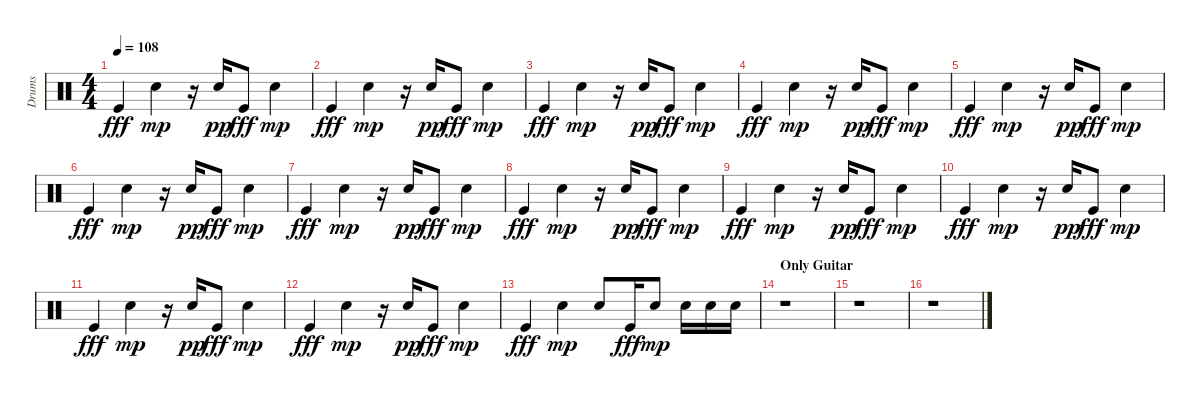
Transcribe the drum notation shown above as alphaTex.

\track ("Drums" "Drums") {instrument percussion}
\staff {score}
\articulation defaults
\ts (4 4)
\tempo 108
\clef neutral
\ks c "Kick (hit)".4{dy fff} "Snare (hit) 2".4{dy mp}
r.16 "Snare (hit) 2".16{dy pp} "Kick (hit)".8{dy fff} "Snare (hit) 2".4{dy mp} |
"Kick (hit)".4{dy fff} "Snare (hit) 2".4{dy mp} r.16 "Snare (hit) 2".16{dy pp} "Kick (hit)".8{dy fff} "Snare (hit) 2".4{dy mp} |
"Kick (hit)".4{dy fff} "Snare (hit) 2".4{dy mp} r.16 "Snare (hit) 2".16{dy pp} "Kick (hit)".8{dy fff} "Snare (hit) 2".4{dy mp} |
"Kick (hit)".4{dy fff} "Snare (hit) 2".4{dy mp} r.16 "Snare (hit) 2".16{dy pp} "Kick (hit)".8{dy fff} "Snare (hit) 2".4{dy mp} |
"Kick (hit)".4{dy fff} "Snare (hit) 2".4{dy mp} r.16 "Snare (hit) 2".16{dy pp} "Kick (hit)".8{dy fff} "Snare (hit) 2".4{dy mp} |
"Kick (hit)".4{dy fff} "Snare (hit) 2".4{dy mp} r.16 "Snare (hit) 2".16{dy pp} "Kick (hit)".8{dy fff} "Snare (hit) 2".4{dy mp} |
"Kick (hit)".4{dy fff} "Snare (hit) 2".4{dy mp} r.16 "Snare (hit) 2".16{dy pp} "Kick (hit)".8{dy fff} "Snare (hit) 2".4{dy mp} |
"Kick (hit)".4{dy fff} "Snare (hit) 2".4{dy mp} r.16 "Snare (hit) 2".16{dy pp} "Kick (hit)".8{dy fff} "Snare (hit) 2".4{dy mp} |
"Kick (hit)".4{dy fff} "Snare (hit) 2".4{dy mp} r.16 "Snare (hit) 2".16{dy pp} "Kick (hit)".8{dy fff} "Snare (hit) 2".4{dy mp} |
"Kick (hit)".4{dy fff} "Snare (hit) 2".4{dy mp} r.16 "Snare (hit) 2".16{dy pp} "Kick (hit)".8{dy fff} "Snare (hit) 2".4{dy mp} |
"Kick (hit)".4{dy fff} "Snare (hit) 2".4{dy mp} r.16 "Snare (hit) 2".16{dy pp} "Kick (hit)".8{dy fff} "Snare (hit) 2".4{dy mp} |
"Kick (hit)".4{dy fff} "Snare (hit) 2".4{dy mp} r.16 "Snare (hit) 2".16{dy pp} "Kick (hit)".8{dy fff} "Snare (hit) 2".4{dy mp} |
"Kick (hit)".4{dy fff} "Snare (hit) 2".4{dy mp} "Snare (hit) 2".8 "Kick (hit)".16{dy fff} "Snare (hit) 2".8{dy mp} "Snare (hit) 2".16 "Snare (hit) 2".16 "Snare (hit) 2".16 |
\section ("" "Only Guitar")
r.1 |
r.1 |
r.1
